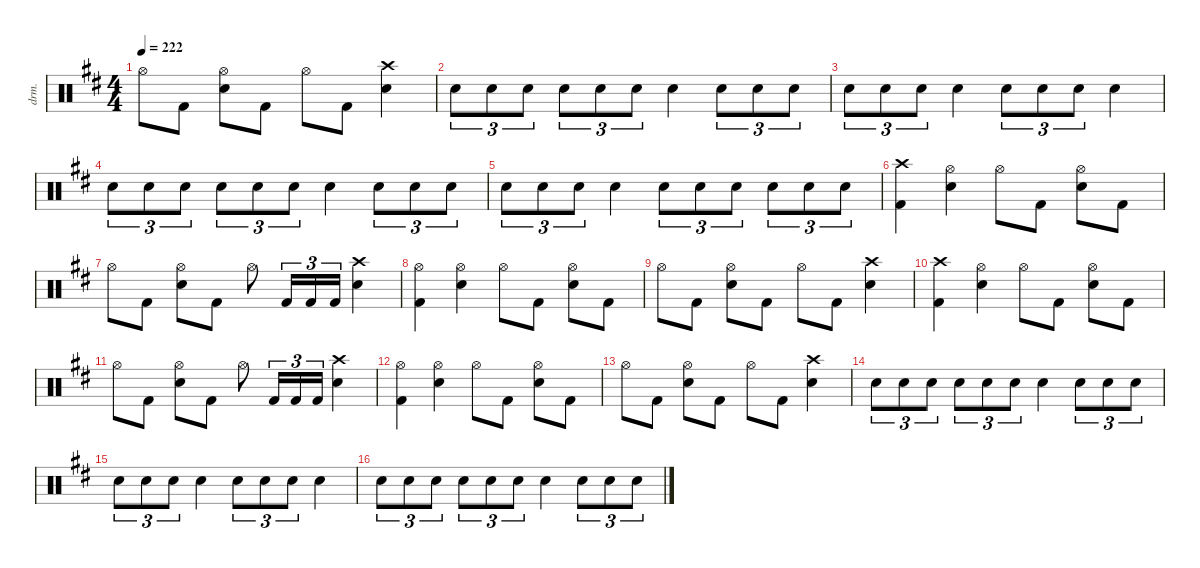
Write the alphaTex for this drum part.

\defaultSystemsLayout 4
\hideDynamics
\bracketExtendMode nobrackets
\otherSystemsTrackNameOrientation horizontal
\track ("Lars Ulrich" "drm.") {defaultSystemsLayout 4 instrument percussion}
\staff {score}
\articulation defaults
\ts (4 4)
\tempo 222
\clef neutral
\ks bminor "Hi-Hat (open)"{acc forcenatural}.8{dy f} "Kick (hit) 2"{acc forcenatural}.8
("Hi-Hat (open)"{acc forcenatural} "Snare (hit) 2"{acc forcenatural}).8 "Kick (hit) 2"{acc forcenatural}.8 "Hi-Hat (open)"{acc forcenatural}.8 "Kick (hit) 2"{acc forcenatural}.8 ("Crash high (hit)"{acc forcenatural} "Snare (hit) 2"{acc forcenatural}).4 |
"Snare (hit) 2"{acc forcenatural}.8{tu (3 2)} "Snare (hit) 2"{acc forcenatural}.8{tu (3 2)} "Snare (hit) 2"{acc forcenatural}.8{tu (3 2)} "Snare (hit) 2"{acc forcenatural}.8{tu (3 2)} "Snare (hit) 2"{acc forcenatural}.8{tu (3 2)} "Snare (hit) 2"{acc forcenatural}.8{tu (3 2)} "Snare (hit) 2"{acc forcenatural}.4 "Snare (hit) 2"{acc forcenatural}.8{tu (3 2)} "Snare (hit) 2"{acc forcenatural}.8{tu (3 2)} "Snare (hit) 2"{acc forcenatural}.8{tu (3 2)} |
"Snare (hit) 2"{acc forcenatural}.8{tu (3 2)} "Snare (hit) 2"{acc forcenatural}.8{tu (3 2)} "Snare (hit) 2"{acc forcenatural}.8{tu (3 2)} "Snare (hit) 2"{acc forcenatural}.4 "Snare (hit) 2"{acc forcenatural}.8{tu (3 2)} "Snare (hit) 2"{acc forcenatural}.8{tu (3 2)} "Snare (hit) 2"{acc forcenatural}.8{tu (3 2)} "Snare (hit) 2"{acc forcenatural}.4 |
"Snare (hit) 2"{acc forcenatural}.8{tu (3 2)} "Snare (hit) 2"{acc forcenatural}.8{tu (3 2)} "Snare (hit) 2"{acc forcenatural}.8{tu (3 2)} "Snare (hit) 2"{acc forcenatural}.8{tu (3 2)} "Snare (hit) 2"{acc forcenatural}.8{tu (3 2)} "Snare (hit) 2"{acc forcenatural}.8{tu (3 2)} "Snare (hit) 2"{acc forcenatural}.4 "Snare (hit) 2"{acc forcenatural}.8{tu (3 2)} "Snare (hit) 2"{acc forcenatural}.8{tu (3 2)} "Snare (hit) 2"{acc forcenatural}.8{tu (3 2)} |
"Snare (hit) 2"{acc forcenatural}.8{tu (3 2)} "Snare (hit) 2"{acc forcenatural}.8{tu (3 2)} "Snare (hit) 2"{acc forcenatural}.8{tu (3 2)} "Snare (hit) 2"{acc forcenatural}.4 "Snare (hit) 2"{acc forcenatural}.8{tu (3 2)} "Snare (hit) 2"{acc forcenatural}.8{tu (3 2)} "Snare (hit) 2"{acc forcenatural}.8{tu (3 2)} "Snare (hit) 2"{acc forcenatural}.8{tu (3 2)} "Snare (hit) 2"{acc forcenatural}.8{tu (3 2)} "Snare (hit) 2"{acc forcenatural}.8{tu (3 2)} |
("Crash high (hit)"{acc forcenatural} "Kick (hit) 2"{acc forcenatural}).4 ("Hi-Hat (open)"{acc forcenatural} "Snare (hit) 2"{acc forcenatural}).4 "Hi-Hat (open)"{acc forcenatural}.8 "Kick (hit) 2"{acc forcenatural}.8 ("Hi-Hat (open)"{acc forcenatural} "Snare (hit) 2"{acc forcenatural}).8 "Kick (hit) 2"{acc forcenatural}.8 |
"Hi-Hat (open)"{acc forcenatural}.8 "Kick (hit) 2"{acc forcenatural}.8 ("Hi-Hat (open)"{acc forcenatural} "Snare (hit) 2"{acc forcenatural}).8 "Kick (hit) 2"{acc forcenatural}.8 "Hi-Hat (open)"{acc forcenatural}.8 "Kick (hit) 2"{acc forcenatural}.16{tu (3 2)} "Kick (hit) 2"{acc forcenatural}.16{tu (3 2)} "Kick (hit) 2"{acc forcenatural}.16{tu (3 2)} ("Crash high (hit)"{acc forcenatural} "Snare (hit) 2"{acc forcenatural}).4 |
("Hi-Hat (open)"{acc forcenatural} "Kick (hit) 2"{acc forcenatural}).4 ("Hi-Hat (open)"{acc forcenatural} "Snare (hit) 2"{acc forcenatural}).4 "Hi-Hat (open)"{acc forcenatural}.8 "Kick (hit) 2"{acc forcenatural}.8 ("Hi-Hat (open)"{acc forcenatural} "Snare (hit) 2"{acc forcenatural}).8 "Kick (hit) 2"{acc forcenatural}.8 |
"Hi-Hat (open)"{acc forcenatural}.8 "Kick (hit) 2"{acc forcenatural}.8 ("Hi-Hat (open)"{acc forcenatural} "Snare (hit) 2"{acc forcenatural}).8 "Kick (hit) 2"{acc forcenatural}.8 "Hi-Hat (open)"{acc forcenatural}.8 "Kick (hit) 2"{acc forcenatural}.8 ("Crash high (hit)"{acc forcenatural} "Snare (hit) 2"{acc forcenatural}).4 |
("Crash high (hit)"{acc forcenatural} "Kick (hit) 2"{acc forcenatural}).4 ("Hi-Hat (open)"{acc forcenatural} "Snare (hit) 2"{acc forcenatural}).4 "Hi-Hat (open)"{acc forcenatural}.8 "Kick (hit) 2"{acc forcenatural}.8 ("Hi-Hat (open)"{acc forcenatural} "Snare (hit) 2"{acc forcenatural}).8 "Kick (hit) 2"{acc forcenatural}.8 |
"Hi-Hat (open)"{acc forcenatural}.8 "Kick (hit) 2"{acc forcenatural}.8 ("Hi-Hat (open)"{acc forcenatural} "Snare (hit) 2"{acc forcenatural}).8 "Kick (hit) 2"{acc forcenatural}.8 "Hi-Hat (open)"{acc forcenatural}.8 "Kick (hit) 2"{acc forcenatural}.16{tu (3 2)} "Kick (hit) 2"{acc forcenatural}.16{tu (3 2)} "Kick (hit) 2"{acc forcenatural}.16{tu (3 2)} ("Crash high (hit)"{acc forcenatural} "Snare (hit) 2"{acc forcenatural}).4 |
("Hi-Hat (open)"{acc forcenatural} "Kick (hit) 2"{acc forcenatural}).4 ("Hi-Hat (open)"{acc forcenatural} "Snare (hit) 2"{acc forcenatural}).4 "Hi-Hat (open)"{acc forcenatural}.8 "Kick (hit) 2"{acc forcenatural}.8 ("Hi-Hat (open)"{acc forcenatural} "Snare (hit) 2"{acc forcenatural}).8 "Kick (hit) 2"{acc forcenatural}.8 |
"Hi-Hat (open)"{acc forcenatural}.8 "Kick (hit) 2"{acc forcenatural}.8 ("Hi-Hat (open)"{acc forcenatural} "Snare (hit) 2"{acc forcenatural}).8 "Kick (hit) 2"{acc forcenatural}.8 "Hi-Hat (open)"{acc forcenatural}.8 "Kick (hit) 2"{acc forcenatural}.8 ("Crash high (hit)"{acc forcenatural} "Snare (hit) 2"{acc forcenatural}).4 |
"Snare (hit) 2"{acc forcenatural}.8{tu (3 2)} "Snare (hit) 2"{acc forcenatural}.8{tu (3 2)} "Snare (hit) 2"{acc forcenatural}.8{tu (3 2)} "Snare (hit) 2"{acc forcenatural}.8{tu (3 2)} "Snare (hit) 2"{acc forcenatural}.8{tu (3 2)} "Snare (hit) 2"{acc forcenatural}.8{tu (3 2)} "Snare (hit) 2"{acc forcenatural}.4 "Snare (hit) 2"{acc forcenatural}.8{tu (3 2)} "Snare (hit) 2"{acc forcenatural}.8{tu (3 2)} "Snare (hit) 2"{acc forcenatural}.8{tu (3 2)} |
"Snare (hit) 2"{acc forcenatural}.8{tu (3 2)} "Snare (hit) 2"{acc forcenatural}.8{tu (3 2)} "Snare (hit) 2"{acc forcenatural}.8{tu (3 2)} "Snare (hit) 2"{acc forcenatural}.4 "Snare (hit) 2"{acc forcenatural}.8{tu (3 2)} "Snare (hit) 2"{acc forcenatural}.8{tu (3 2)} "Snare (hit) 2"{acc forcenatural}.8{tu (3 2)} "Snare (hit) 2"{acc forcenatural}.4 |
"Snare (hit) 2"{acc forcenatural}.8{tu (3 2)} "Snare (hit) 2"{acc forcenatural}.8{tu (3 2)} "Snare (hit) 2"{acc forcenatural}.8{tu (3 2)} "Snare (hit) 2"{acc forcenatural}.8{tu (3 2)} "Snare (hit) 2"{acc forcenatural}.8{tu (3 2)} "Snare (hit) 2"{acc forcenatural}.8{tu (3 2)} "Snare (hit) 2"{acc forcenatural}.4 "Snare (hit) 2"{acc forcenatural}.8{tu (3 2)} "Snare (hit) 2"{acc forcenatural}.8{tu (3 2)} "Snare (hit) 2"{acc forcenatural}.8{tu (3 2)}
